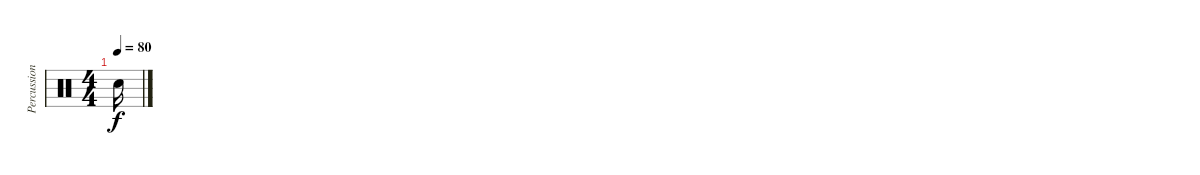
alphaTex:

\track ("Percussion" "Percussion") {instrument percussion}
\staff {score}
\articulation defaults
\ts (4 4)
\tempo 80
\clef neutral
\ks c "Snare (hit) 2".16{dy f}
